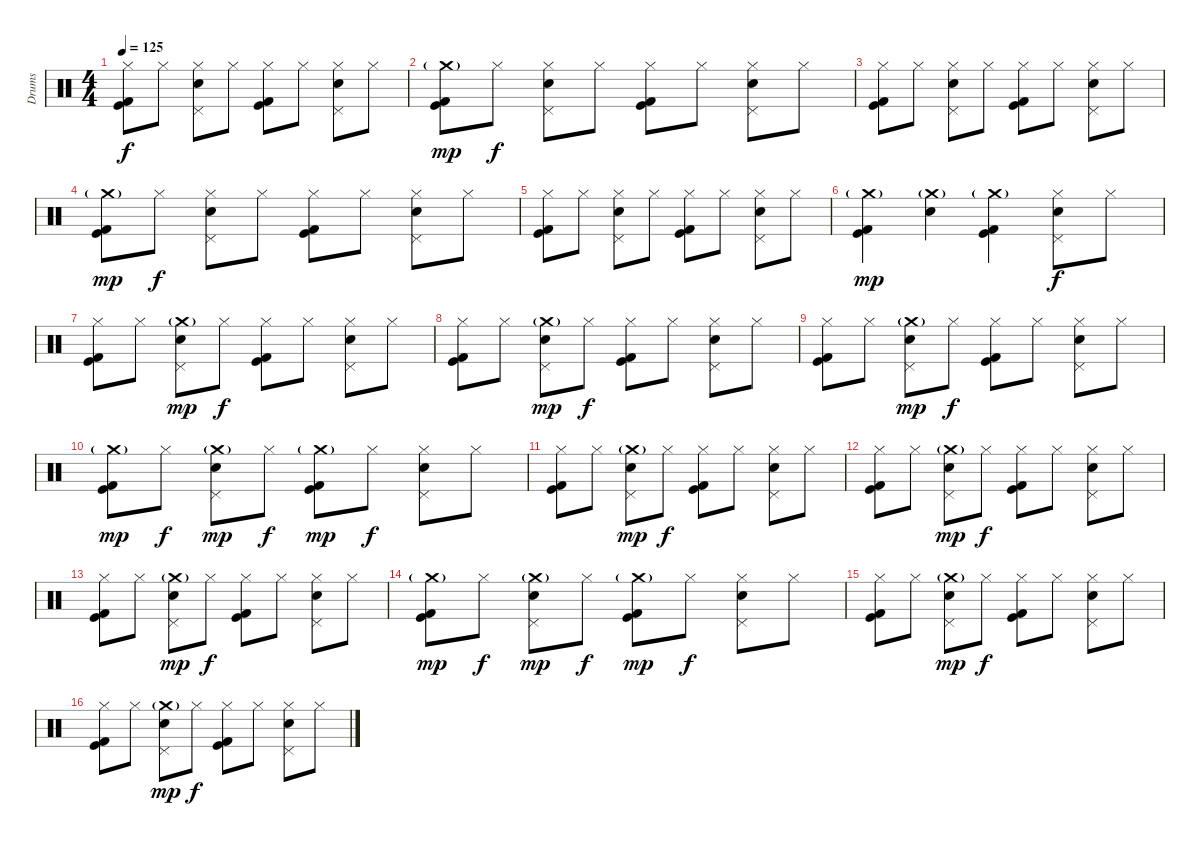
\track ("Drums" "Drums") {instrument percussion}
\staff {score}
\articulation defaults
\ts (4 4)
\tempo 125
\clef neutral
\ks c
("Hi-Hat (closed)" "Kick (hit)" "Kick (hit) 2").8{dy f} "Hi-Hat (closed)".8 ("Hi-Hat (closed)" "Pedal Hi-Hat (hit)" "Electric Snare (hit)").8 "Hi-Hat (closed)".8 ("Hi-Hat (closed)" "Kick (hit)" "Kick (hit) 2").8 "Hi-Hat (closed)".8 ("Hi-Hat (closed)" "Pedal Hi-Hat (hit)" "Electric Snare (hit)").8 "Hi-Hat (closed)".8 |
("Crash medium (hit)"{g} "Kick (hit)" "Kick (hit) 2").8{dy mp} "Hi-Hat (closed)".8{dy f} ("Hi-Hat (closed)" "Pedal Hi-Hat (hit)" "Electric Snare (hit)").8 "Hi-Hat (closed)".8 ("Hi-Hat (closed)" "Kick (hit)" "Kick (hit) 2").8 "Hi-Hat (closed)".8 ("Hi-Hat (closed)" "Pedal Hi-Hat (hit)" "Electric Snare (hit)").8 "Hi-Hat (closed)".8 |
("Hi-Hat (closed)" "Kick (hit)" "Kick (hit) 2").8 "Hi-Hat (closed)".8 ("Hi-Hat (closed)" "Pedal Hi-Hat (hit)" "Electric Snare (hit)").8 "Hi-Hat (closed)".8 ("Hi-Hat (closed)" "Kick (hit)" "Kick (hit) 2").8 "Hi-Hat (closed)".8 ("Hi-Hat (closed)" "Pedal Hi-Hat (hit)" "Electric Snare (hit)").8 "Hi-Hat (closed)".8 |
("Crash medium (hit)"{g} "Kick (hit)" "Kick (hit) 2").8{dy mp} "Hi-Hat (closed)".8{dy f} ("Hi-Hat (closed)" "Pedal Hi-Hat (hit)" "Electric Snare (hit)").8 "Hi-Hat (closed)".8 ("Hi-Hat (closed)" "Kick (hit)" "Kick (hit) 2").8 "Hi-Hat (closed)".8 ("Hi-Hat (closed)" "Pedal Hi-Hat (hit)" "Electric Snare (hit)").8 "Hi-Hat (closed)".8 |
("Hi-Hat (closed)" "Kick (hit)" "Kick (hit) 2").8 "Hi-Hat (closed)".8 ("Hi-Hat (closed)" "Pedal Hi-Hat (hit)" "Electric Snare (hit)").8 "Hi-Hat (closed)".8 ("Hi-Hat (closed)" "Kick (hit)" "Kick (hit) 2").8 "Hi-Hat (closed)".8 ("Hi-Hat (closed)" "Pedal Hi-Hat (hit)" "Electric Snare (hit)").8 "Hi-Hat (closed)".8 |
("Crash medium (hit)"{g} "Kick (hit)" "Kick (hit) 2").4{dy mp} ("Crash medium (hit)"{g} "Electric Snare (hit)").4 ("Crash medium (hit)"{g} "Kick (hit)" "Kick (hit) 2").4 ("Hi-Hat (closed)" "Pedal Hi-Hat (hit)" "Electric Snare (hit)").8{dy f} "Hi-Hat (closed)".8 |
("Hi-Hat (closed)" "Kick (hit)" "Kick (hit) 2").8 "Hi-Hat (closed)".8 ("Crash medium (hit)"{g} "Pedal Hi-Hat (hit)" "Electric Snare (hit)").8{dy mp} "Hi-Hat (closed)".8{dy f} ("Hi-Hat (closed)" "Kick (hit)" "Kick (hit) 2").8 "Hi-Hat (closed)".8 ("Hi-Hat (closed)" "Pedal Hi-Hat (hit)" "Electric Snare (hit)").8 "Hi-Hat (closed)".8 |
("Hi-Hat (closed)" "Kick (hit)" "Kick (hit) 2").8 "Hi-Hat (closed)".8 ("Crash medium (hit)"{g} "Pedal Hi-Hat (hit)" "Electric Snare (hit)").8{dy mp} "Hi-Hat (closed)".8{dy f} ("Hi-Hat (closed)" "Kick (hit)" "Kick (hit) 2").8 "Hi-Hat (closed)".8 ("Hi-Hat (closed)" "Pedal Hi-Hat (hit)" "Electric Snare (hit)").8 "Hi-Hat (closed)".8 |
("Hi-Hat (closed)" "Kick (hit)" "Kick (hit) 2").8 "Hi-Hat (closed)".8 ("Crash medium (hit)"{g} "Pedal Hi-Hat (hit)" "Electric Snare (hit)").8{dy mp} "Hi-Hat (closed)".8{dy f} ("Hi-Hat (closed)" "Kick (hit)" "Kick (hit) 2").8 "Hi-Hat (closed)".8 ("Hi-Hat (closed)" "Pedal Hi-Hat (hit)" "Electric Snare (hit)").8 "Hi-Hat (closed)".8 |
("Crash medium (hit)"{g} "Kick (hit)" "Kick (hit) 2").8{dy mp} "Hi-Hat (closed)".8{dy f} ("Crash medium (hit)"{g} "Pedal Hi-Hat (hit)" "Electric Snare (hit)").8{dy mp} "Hi-Hat (closed)".8{dy f} ("Crash medium (hit)"{g} "Kick (hit)" "Kick (hit) 2").8{dy mp} "Hi-Hat (closed)".8{dy f} ("Hi-Hat (closed)" "Pedal Hi-Hat (hit)" "Electric Snare (hit)").8 "Hi-Hat (closed)".8 |
("Hi-Hat (closed)" "Kick (hit)" "Kick (hit) 2").8 "Hi-Hat (closed)".8 ("Crash medium (hit)"{g} "Pedal Hi-Hat (hit)" "Electric Snare (hit)").8{dy mp} "Hi-Hat (closed)".8{dy f} ("Hi-Hat (closed)" "Kick (hit)" "Kick (hit) 2").8 "Hi-Hat (closed)".8 ("Hi-Hat (closed)" "Pedal Hi-Hat (hit)" "Electric Snare (hit)").8 "Hi-Hat (closed)".8 |
("Hi-Hat (closed)" "Kick (hit)" "Kick (hit) 2").8 "Hi-Hat (closed)".8 ("Crash medium (hit)"{g} "Pedal Hi-Hat (hit)" "Electric Snare (hit)").8{dy mp} "Hi-Hat (closed)".8{dy f} ("Hi-Hat (closed)" "Kick (hit)" "Kick (hit) 2").8 "Hi-Hat (closed)".8 ("Hi-Hat (closed)" "Pedal Hi-Hat (hit)" "Electric Snare (hit)").8 "Hi-Hat (closed)".8 |
("Hi-Hat (closed)" "Kick (hit)" "Kick (hit) 2").8 "Hi-Hat (closed)".8 ("Crash medium (hit)"{g} "Pedal Hi-Hat (hit)" "Electric Snare (hit)").8{dy mp} "Hi-Hat (closed)".8{dy f} ("Hi-Hat (closed)" "Kick (hit)" "Kick (hit) 2").8 "Hi-Hat (closed)".8 ("Hi-Hat (closed)" "Pedal Hi-Hat (hit)" "Electric Snare (hit)").8 "Hi-Hat (closed)".8 |
("Crash medium (hit)"{g} "Kick (hit)" "Kick (hit) 2").8{dy mp} "Hi-Hat (closed)".8{dy f} ("Crash medium (hit)"{g} "Pedal Hi-Hat (hit)" "Electric Snare (hit)").8{dy mp} "Hi-Hat (closed)".8{dy f} ("Crash medium (hit)"{g} "Kick (hit)" "Kick (hit) 2").8{dy mp} "Hi-Hat (closed)".8{dy f} ("Hi-Hat (closed)" "Pedal Hi-Hat (hit)" "Electric Snare (hit)").8 "Hi-Hat (closed)".8 |
("Hi-Hat (closed)" "Kick (hit)" "Kick (hit) 2").8 "Hi-Hat (closed)".8 ("Crash medium (hit)"{g} "Pedal Hi-Hat (hit)" "Electric Snare (hit)").8{dy mp} "Hi-Hat (closed)".8{dy f} ("Hi-Hat (closed)" "Kick (hit)" "Kick (hit) 2").8 "Hi-Hat (closed)".8 ("Hi-Hat (closed)" "Pedal Hi-Hat (hit)" "Electric Snare (hit)").8 "Hi-Hat (closed)".8 |
("Hi-Hat (closed)" "Kick (hit)" "Kick (hit) 2").8 "Hi-Hat (closed)".8 ("Crash medium (hit)"{g} "Pedal Hi-Hat (hit)" "Electric Snare (hit)").8{dy mp} "Hi-Hat (closed)".8{dy f} ("Hi-Hat (closed)" "Kick (hit)" "Kick (hit) 2").8 "Hi-Hat (closed)".8 ("Hi-Hat (closed)" "Pedal Hi-Hat (hit)" "Electric Snare (hit)").8 "Hi-Hat (closed)".8
